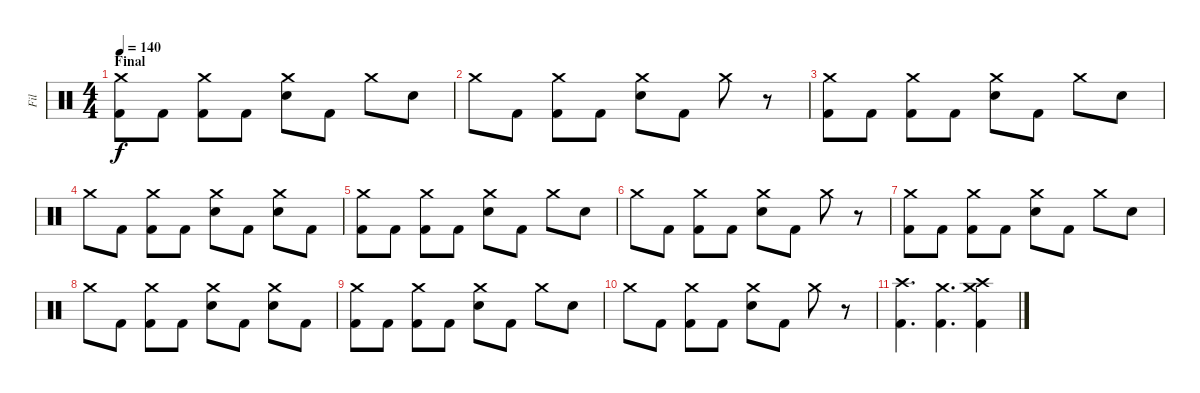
\track ("Fil" "Fil") {instrument percussion}
\staff {score}
\articulation defaults
\ts (4 4)
\section ("" "Final")
\tempo 140
\clef neutral
\ks c
("Crash medium (hit)" "Kick (hit) 2").8{dy f} "Kick (hit) 2".8 ("Crash medium (hit)" "Kick (hit) 2").8 "Kick (hit) 2".8 ("Crash medium (hit)" "Electric Snare (hit)").8 "Kick (hit) 2".8 "Crash medium (hit)".8 "Electric Snare (hit)".8 |
"Crash medium (hit)".8 "Kick (hit) 2".8 ("Crash medium (hit)" "Kick (hit) 2").8 "Kick (hit) 2".8 ("Crash medium (hit)" "Electric Snare (hit)").8 "Kick (hit) 2".8 "Crash medium (hit)".8 r.8 |
("Crash medium (hit)" "Kick (hit) 2").8 "Kick (hit) 2".8 ("Crash medium (hit)" "Kick (hit) 2").8 "Kick (hit) 2".8 ("Crash medium (hit)" "Electric Snare (hit)").8 "Kick (hit) 2".8 "Crash medium (hit)".8 "Electric Snare (hit)".8 |
"Crash medium (hit)".8 "Kick (hit) 2".8 ("Crash medium (hit)" "Kick (hit) 2").8 "Kick (hit) 2".8 ("Crash medium (hit)" "Electric Snare (hit)").8 "Kick (hit) 2".8 ("Crash medium (hit)" "Electric Snare (hit)").8 "Kick (hit) 2".8 |
("Crash medium (hit)" "Kick (hit) 2").8 "Kick (hit) 2".8 ("Crash medium (hit)" "Kick (hit) 2").8 "Kick (hit) 2".8 ("Crash medium (hit)" "Electric Snare (hit)").8 "Kick (hit) 2".8 "Crash medium (hit)".8 "Electric Snare (hit)".8 |
"Crash medium (hit)".8 "Kick (hit) 2".8 ("Crash medium (hit)" "Kick (hit) 2").8 "Kick (hit) 2".8 ("Crash medium (hit)" "Electric Snare (hit)").8 "Kick (hit) 2".8 "Crash medium (hit)".8 r.8 |
("Crash medium (hit)" "Kick (hit) 2").8 "Kick (hit) 2".8 ("Crash medium (hit)" "Kick (hit) 2").8 "Kick (hit) 2".8 ("Crash medium (hit)" "Electric Snare (hit)").8 "Kick (hit) 2".8 "Crash medium (hit)".8 "Electric Snare (hit)".8 |
"Crash medium (hit)".8 "Kick (hit) 2".8 ("Crash medium (hit)" "Kick (hit) 2").8 "Kick (hit) 2".8 ("Crash medium (hit)" "Electric Snare (hit)").8 "Kick (hit) 2".8 ("Crash medium (hit)" "Electric Snare (hit)").8 "Kick (hit) 2".8 |
("Crash medium (hit)" "Kick (hit) 2").8 "Kick (hit) 2".8 ("Crash medium (hit)" "Kick (hit) 2").8 "Kick (hit) 2".8 ("Crash medium (hit)" "Electric Snare (hit)").8 "Kick (hit) 2".8 "Crash medium (hit)".8 "Electric Snare (hit)".8 |
"Crash medium (hit)".8 "Kick (hit) 2".8 ("Crash medium (hit)" "Kick (hit) 2").8 "Kick (hit) 2".8 ("Crash medium (hit)" "Electric Snare (hit)").8 "Kick (hit) 2".8 "Crash medium (hit)".8 r.8 |
("Crash high (hit)" "Kick (hit) 2").4{d} ("Crash medium (hit)" "Kick (hit) 2").4{d} ("Crash high (hit)" "Crash medium (hit)" "Kick (hit) 2").4
